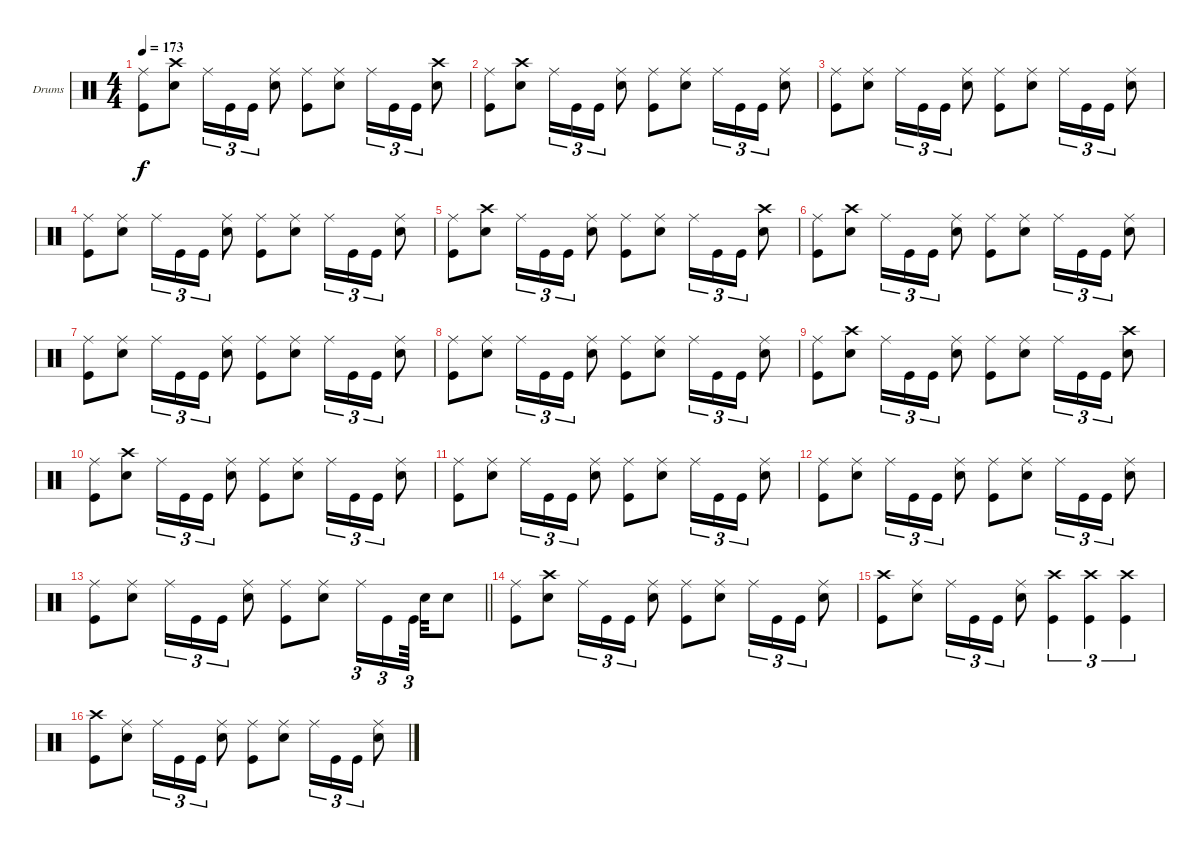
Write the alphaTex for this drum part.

\bracketExtendMode groupsimilarinstruments
\firstSystemTrackNameOrientation horizontal
\otherSystemsTrackNameOrientation horizontal
\track ("Drums" "Drums") {instrument percussion}
\staff {score}
\articulation defaults
\ts (4 4)
\tempo 173
\clef neutral
\ks c
("Kick (hit)" "Ride (middle)").8{dy f} ("Snare (hit) 2" "Crash high (hit)").8 "Ride (middle)".16{tu (3 2)} "Kick (hit)".16{tu (3 2)} "Kick (hit)".16{tu (3 2)} ("Snare (hit) 2" "Ride (middle)").8 ("Kick (hit)" "Ride (middle)").8 ("Snare (hit) 2" "Ride (middle)").8 "Ride (middle)".16{tu (3 2)} "Kick (hit)".16{tu (3 2)} "Kick (hit)".16{tu (3 2)} ("Snare (hit) 2" "Crash high (hit)").8 |
("Kick (hit)" "Ride (middle)").8 ("Snare (hit) 2" "Crash high (hit)").8 "Ride (middle)".16{tu (3 2)} "Kick (hit)".16{tu (3 2)} "Kick (hit)".16{tu (3 2)} ("Snare (hit) 2" "Ride (middle)").8 ("Kick (hit)" "Ride (middle)").8 ("Snare (hit) 2" "Ride (middle)").8 "Ride (middle)".16{tu (3 2)} "Kick (hit)".16{tu (3 2)} "Kick (hit)".16{tu (3 2)} ("Snare (hit) 2" "Ride (middle)").8 |
("Kick (hit)" "Ride (middle)").8 ("Snare (hit) 2" "Ride (middle)").8 "Ride (middle)".16{tu (3 2)} "Kick (hit)".16{tu (3 2)} "Kick (hit)".16{tu (3 2)} ("Snare (hit) 2" "Ride (middle)").8 ("Kick (hit)" "Ride (middle)").8 ("Snare (hit) 2" "Ride (middle)").8 "Ride (middle)".16{tu (3 2)} "Kick (hit)".16{tu (3 2)} "Kick (hit)".16{tu (3 2)} ("Snare (hit) 2" "Ride (middle)").8 |
("Kick (hit)" "Ride (middle)").8 ("Snare (hit) 2" "Ride (middle)").8 "Ride (middle)".16{tu (3 2)} "Kick (hit)".16{tu (3 2)} "Kick (hit)".16{tu (3 2)} ("Snare (hit) 2" "Ride (middle)").8 ("Kick (hit)" "Ride (middle)").8 ("Snare (hit) 2" "Ride (middle)").8 "Ride (middle)".16{tu (3 2)} "Kick (hit)".16{tu (3 2)} "Kick (hit)".16{tu (3 2)} ("Snare (hit) 2" "Ride (middle)").8 |
("Kick (hit)" "Ride (middle)").8 ("Snare (hit) 2" "Crash high (hit)").8 "Ride (middle)".16{tu (3 2)} "Kick (hit)".16{tu (3 2)} "Kick (hit)".16{tu (3 2)} ("Snare (hit) 2" "Ride (middle)").8 ("Kick (hit)" "Ride (middle)").8 ("Snare (hit) 2" "Ride (middle)").8 "Ride (middle)".16{tu (3 2)} "Kick (hit)".16{tu (3 2)} "Kick (hit)".16{tu (3 2)} ("Snare (hit) 2" "Crash high (hit)").8 |
("Kick (hit)" "Ride (middle)").8 ("Snare (hit) 2" "Crash high (hit)").8 "Ride (middle)".16{tu (3 2)} "Kick (hit)".16{tu (3 2)} "Kick (hit)".16{tu (3 2)} ("Snare (hit) 2" "Ride (middle)").8 ("Kick (hit)" "Ride (middle)").8 ("Snare (hit) 2" "Ride (middle)").8 "Ride (middle)".16{tu (3 2)} "Kick (hit)".16{tu (3 2)} "Kick (hit)".16{tu (3 2)} ("Snare (hit) 2" "Ride (middle)").8 |
("Kick (hit)" "Ride (middle)").8 ("Snare (hit) 2" "Ride (middle)").8 "Ride (middle)".16{tu (3 2)} "Kick (hit)".16{tu (3 2)} "Kick (hit)".16{tu (3 2)} ("Snare (hit) 2" "Ride (middle)").8 ("Kick (hit)" "Ride (middle)").8 ("Snare (hit) 2" "Ride (middle)").8 "Ride (middle)".16{tu (3 2)} "Kick (hit)".16{tu (3 2)} "Kick (hit)".16{tu (3 2)} ("Snare (hit) 2" "Ride (middle)").8 |
("Kick (hit)" "Ride (middle)").8 ("Snare (hit) 2" "Ride (middle)").8 "Ride (middle)".16{tu (3 2)} "Kick (hit)".16{tu (3 2)} "Kick (hit)".16{tu (3 2)} ("Snare (hit) 2" "Ride (middle)").8 ("Kick (hit)" "Ride (middle)").8 ("Snare (hit) 2" "Ride (middle)").8 "Ride (middle)".16{tu (3 2)} "Kick (hit)".16{tu (3 2)} "Kick (hit)".16{tu (3 2)} ("Snare (hit) 2" "Ride (middle)").8 |
("Kick (hit)" "Ride (middle)").8 ("Snare (hit) 2" "Crash high (hit)").8 "Ride (middle)".16{tu (3 2)} "Kick (hit)".16{tu (3 2)} "Kick (hit)".16{tu (3 2)} ("Snare (hit) 2" "Ride (middle)").8 ("Kick (hit)" "Ride (middle)").8 ("Snare (hit) 2" "Ride (middle)").8 "Ride (middle)".16{tu (3 2)} "Kick (hit)".16{tu (3 2)} "Kick (hit)".16{tu (3 2)} ("Snare (hit) 2" "Crash high (hit)").8 |
("Kick (hit)" "Ride (middle)").8 ("Snare (hit) 2" "Crash high (hit)").8 "Ride (middle)".16{tu (3 2)} "Kick (hit)".16{tu (3 2)} "Kick (hit)".16{tu (3 2)} ("Snare (hit) 2" "Ride (middle)").8 ("Kick (hit)" "Ride (middle)").8 ("Snare (hit) 2" "Ride (middle)").8 "Ride (middle)".16{tu (3 2)} "Kick (hit)".16{tu (3 2)} "Kick (hit)".16{tu (3 2)} ("Snare (hit) 2" "Ride (middle)").8 |
("Kick (hit)" "Ride (middle)").8 ("Snare (hit) 2" "Ride (middle)").8 "Ride (middle)".16{tu (3 2)} "Kick (hit)".16{tu (3 2)} "Kick (hit)".16{tu (3 2)} ("Snare (hit) 2" "Ride (middle)").8 ("Kick (hit)" "Ride (middle)").8 ("Snare (hit) 2" "Ride (middle)").8 "Ride (middle)".16{tu (3 2)} "Kick (hit)".16{tu (3 2)} "Kick (hit)".16{tu (3 2)} ("Snare (hit) 2" "Ride (middle)").8 |
("Kick (hit)" "Ride (middle)").8 ("Snare (hit) 2" "Ride (middle)").8 "Ride (middle)".16{tu (3 2)} "Kick (hit)".16{tu (3 2)} "Kick (hit)".16{tu (3 2)} ("Snare (hit) 2" "Ride (middle)").8 ("Kick (hit)" "Ride (middle)").8 ("Snare (hit) 2" "Ride (middle)").8 "Ride (middle)".16{tu (3 2)} "Kick (hit)".16{tu (3 2)} "Kick (hit)".16{tu (3 2)} ("Snare (hit) 2" "Ride (middle)").8 |
\barLineRight lightlight
("Kick (hit)" "Ride (middle)").8 ("Snare (hit) 2" "Ride (middle)").8 "Ride (middle)".16{tu (3 2)} "Kick (hit)".16{tu (3 2)} "Kick (hit)".16{tu (3 2)} ("Snare (hit) 2" "Ride (middle)").8 ("Kick (hit)" "Ride (middle)").8 ("Snare (hit) 2" "Ride (middle)").8 "Ride (middle)".16{tu (3 2)} "Kick (hit)".16{tu (3 2)} "Kick (hit)".64{tu (3 2)} "Snare (hit) 2".32 "Snare (hit) 2".8 |
("Kick (hit)" "Ride (middle)").8 ("Snare (hit) 2" "Crash high (hit)").8 "Ride (middle)".16{tu (3 2)} "Kick (hit)".16{tu (3 2)} "Kick (hit)".16{tu (3 2)} ("Snare (hit) 2" "Ride (middle)").8 ("Kick (hit)" "Ride (middle)").8 ("Snare (hit) 2" "Ride (middle)").8 "Ride (middle)".16{tu (3 2)} "Kick (hit)".16{tu (3 2)} "Kick (hit)".16{tu (3 2)} ("Snare (hit) 2" "Ride (middle)").8 |
("Kick (hit)" "Crash high (hit)").8 ("Snare (hit) 2" "Ride (middle)").8 "Ride (middle)".16{tu (3 2)} "Kick (hit)".16{tu (3 2)} "Kick (hit)".16{tu (3 2)} ("Snare (hit) 2" "Ride (middle)").8 ("Crash high (hit)" "Kick (hit)").4{tu (3 2)} ("Crash high (hit)" "Kick (hit)").4{tu (3 2)} ("Crash high (hit)" "Kick (hit)").4{tu (3 2)} |
("Crash high (hit)" "Kick (hit)").8 ("Snare (hit) 2" "Ride (middle)").8 "Ride (middle)".16{tu (3 2)} "Kick (hit)".16{tu (3 2)} "Kick (hit)".16{tu (3 2)} ("Snare (hit) 2" "Ride (middle)").8 ("Kick (hit)" "Ride (middle)").8 ("Snare (hit) 2" "Ride (middle)").8 "Ride (middle)".16{tu (3 2)} "Kick (hit)".16{tu (3 2)} "Kick (hit)".16{tu (3 2)} ("Snare (hit) 2" "Ride (middle)").8
